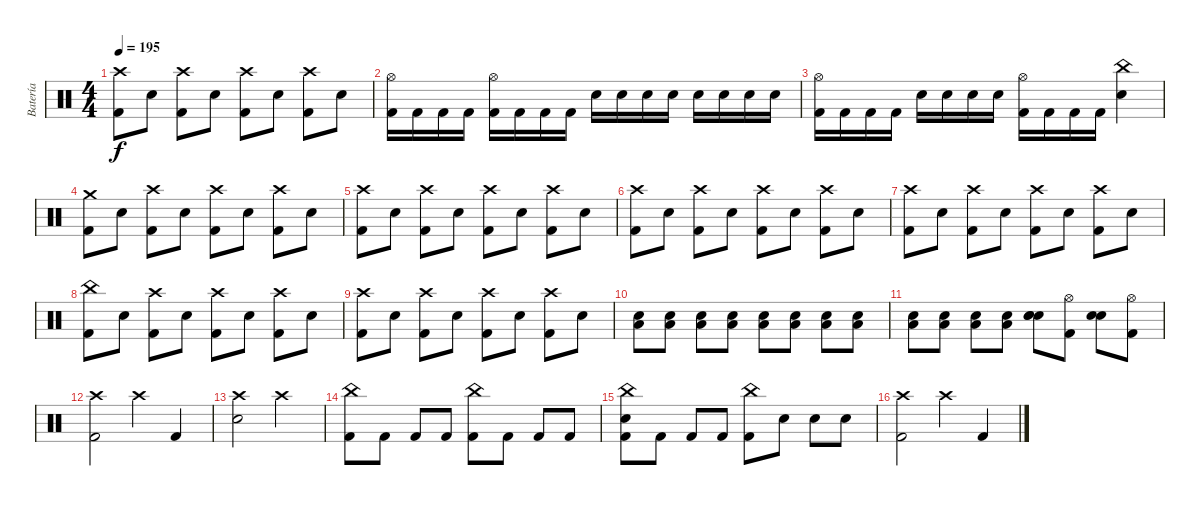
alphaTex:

\track ("Batería" "Batería") {instrument percussion}
\staff {score}
\articulation defaults
\ts (4 4)
\tempo 195
\clef neutral
\ks c
("Crash high (hit)" "Kick (hit) 2").8{dy f} "Snare (hit) 2".8 ("Crash high (hit)" "Kick (hit) 2").8 "Snare (hit) 2".8 ("Crash high (hit)" "Kick (hit) 2").8 "Snare (hit) 2".8 ("Crash high (hit)" "Kick (hit) 2").8 "Snare (hit) 2".8 |
("Hi-Hat (open)" "Kick (hit) 2").16 "Kick (hit) 2".16 "Kick (hit) 2".16 "Kick (hit) 2".16 ("Hi-Hat (open)" "Kick (hit) 2").16 "Kick (hit) 2".16 "Kick (hit) 2".16 "Kick (hit) 2".16 "Snare (hit) 2".16 "Snare (hit) 2".16 "Snare (hit) 2".16 "Snare (hit) 2".16 "Snare (hit) 2".16 "Snare (hit) 2".16 "Snare (hit) 2".16 "Snare (hit) 2".16 |
("Hi-Hat (open)" "Kick (hit) 2").16 "Kick (hit) 2".16 "Kick (hit) 2".16 "Kick (hit) 2".16 "Snare (hit) 2".16 "Snare (hit) 2".16 "Snare (hit) 2".16 "Snare (hit) 2".16 ("Hi-Hat (open)" "Kick (hit) 2").16 "Kick (hit) 2".16 "Kick (hit) 2".16 "Kick (hit) 2".16 ("China (hit)" "Snare (hit) 2").4 |
("Crash medium (hit)" "Kick (hit) 2").8 "Snare (hit) 2".8 ("Crash high (hit)" "Kick (hit) 2").8 "Snare (hit) 2".8 ("Crash high (hit)" "Kick (hit) 2").8 "Snare (hit) 2".8 ("Crash high (hit)" "Kick (hit) 2").8 "Snare (hit) 2".8 |
("Crash high (hit)" "Kick (hit) 2").8 "Snare (hit) 2".8 ("Crash high (hit)" "Kick (hit) 2").8 "Snare (hit) 2".8 ("Crash high (hit)" "Kick (hit) 2").8 "Snare (hit) 2".8 ("Crash high (hit)" "Kick (hit) 2").8 "Snare (hit) 2".8 |
("Crash high (hit)" "Kick (hit) 2").8 "Snare (hit) 2".8 ("Crash high (hit)" "Kick (hit) 2").8 "Snare (hit) 2".8 ("Crash high (hit)" "Kick (hit) 2").8 "Snare (hit) 2".8 ("Crash high (hit)" "Kick (hit) 2").8 "Snare (hit) 2".8 |
("Crash high (hit)" "Kick (hit) 2").8 "Snare (hit) 2".8 ("Crash high (hit)" "Kick (hit) 2").8 "Snare (hit) 2".8 ("Crash high (hit)" "Kick (hit) 2").8 "Snare (hit) 2".8 ("Crash high (hit)" "Kick (hit) 2").8 "Snare (hit) 2".8 |
("China (hit)" "Kick (hit) 2").8 "Snare (hit) 2".8 ("Crash high (hit)" "Kick (hit) 2").8 "Snare (hit) 2".8 ("Crash high (hit)" "Kick (hit) 2").8 "Snare (hit) 2".8 ("Crash high (hit)" "Kick (hit) 2").8 "Snare (hit) 2".8 |
("Crash high (hit)" "Kick (hit) 2").8 "Snare (hit) 2".8 ("Crash high (hit)" "Kick (hit) 2").8 "Snare (hit) 2".8 ("Crash high (hit)" "Kick (hit) 2").8 "Snare (hit) 2".8 ("Crash high (hit)" "Kick (hit) 2").8 "Snare (hit) 2".8 |
("Low Floor Tom (hit)" "Snare (hit) 2").8 ("Low Floor Tom (hit)" "Snare (hit) 2").8{volume 8} ("Low Floor Tom (hit)" "Snare (hit) 2").8{volume 13} ("Low Floor Tom (hit)" "Snare (hit) 2").8 ("Low Floor Tom (hit)" "Snare (hit) 2").8 ("Low Floor Tom (hit)" "Snare (hit) 2").8 ("Low Floor Tom (hit)" "Snare (hit) 2").8 ("Low Floor Tom (hit)" "Snare (hit) 2").8 |
("Low Floor Tom (hit)" "Snare (hit) 2").8 ("Low Floor Tom (hit)" "Snare (hit) 2").8 ("Low Floor Tom (hit)" "Snare (hit) 2").8 ("Low Floor Tom (hit)" "Snare (hit) 2").8 ("Snare (hit)" "Snare (hit) 2" "Snare (hit) 2").8 ("Hi-Hat (open)" "Kick (hit) 2").8 ("Snare (hit) 2" "Snare (hit) 2").8 ("Hi-Hat (open)" "Kick (hit) 2").8 |
("Crash high (hit)" "Kick (hit) 2").2 "Crash high (hit)".4 "Kick (hit) 2".4 |
("Crash high (hit)" "Snare (hit) 2").2 "Crash high (hit)".2 |
("China (hit)" "Kick (hit) 2").8 "Kick (hit) 2".8 "Kick (hit) 2".8 "Kick (hit) 2".8 ("China (hit)" "Kick (hit) 2").8 "Kick (hit) 2".8 "Kick (hit) 2".8 "Kick (hit) 2".8 |
("China (hit)" "Snare (hit) 2" "Kick (hit) 2").8 "Kick (hit) 2".8 "Kick (hit) 2".8 "Kick (hit) 2".8 ("China (hit)" "Kick (hit) 2").8 "Snare (hit) 2".8 "Snare (hit) 2".8 "Snare (hit) 2".8 |
("Crash high (hit)" "Kick (hit) 2").2 "Crash high (hit)".4 "Kick (hit) 2".4
